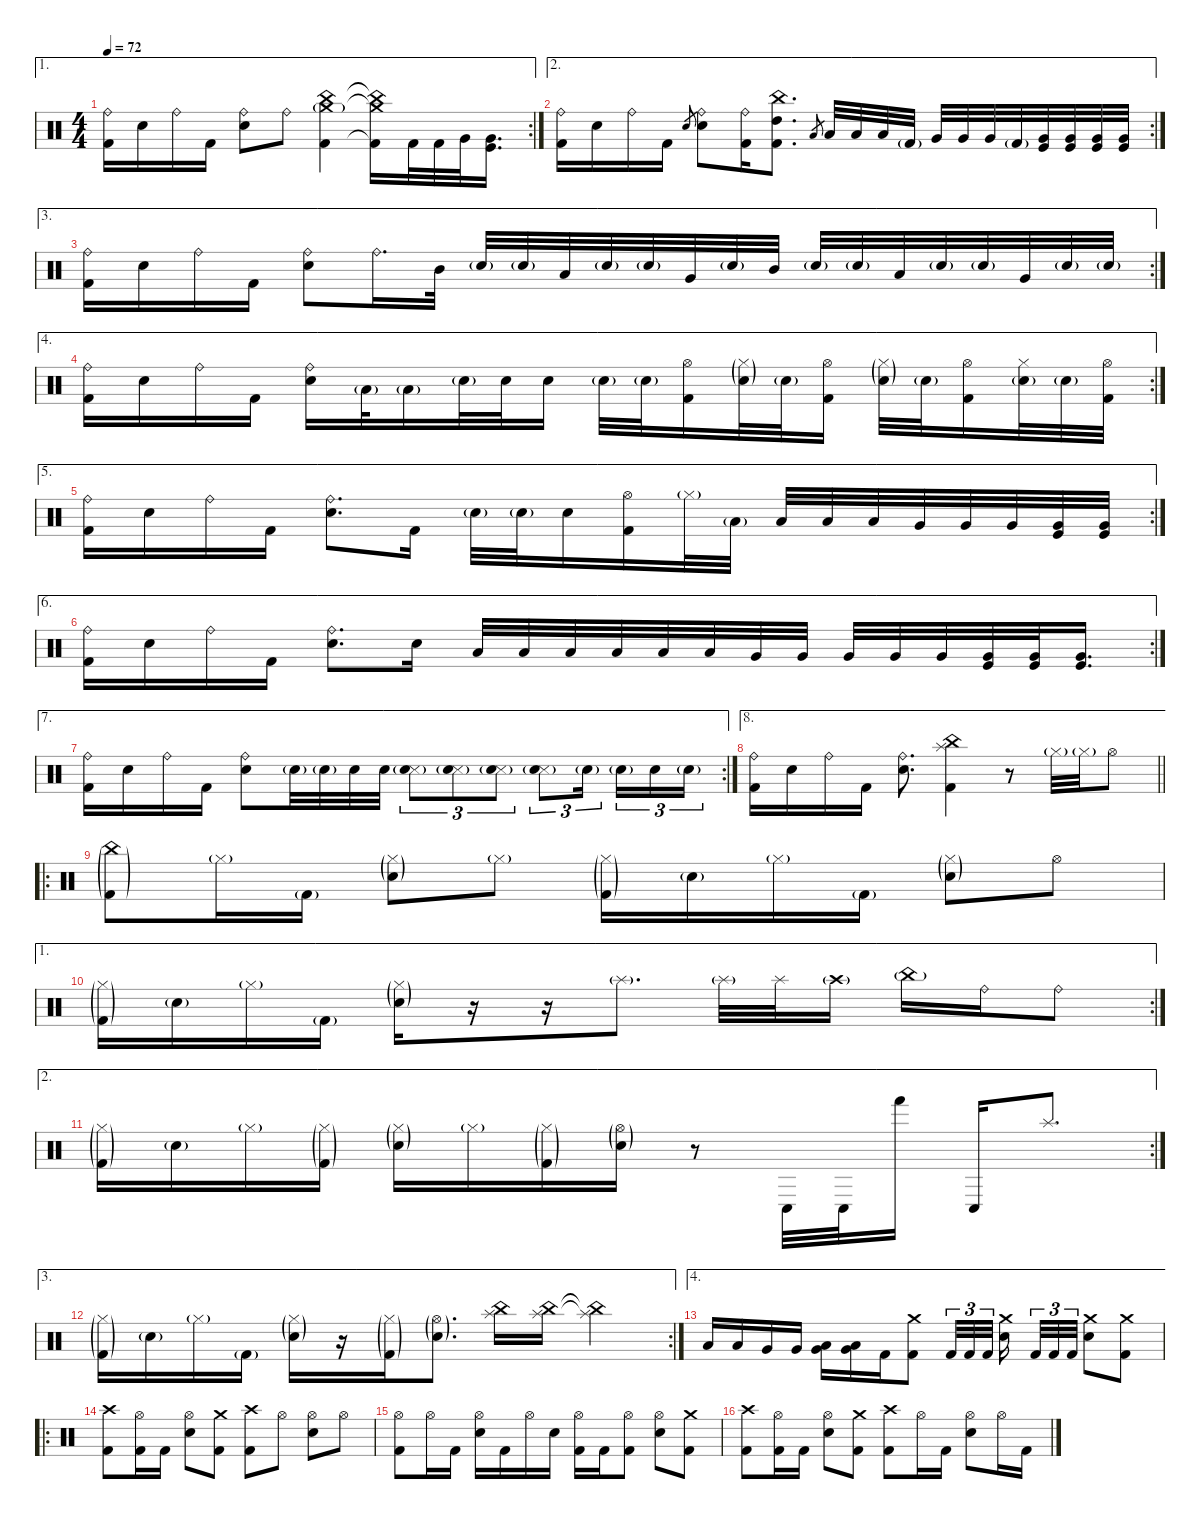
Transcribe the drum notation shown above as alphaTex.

\defaultSystemsLayout 4
\hideDynamics
\bracketExtendMode nobrackets
\singleTrackTrackNamePolicy hidden
\multiTrackTrackNamePolicy hidden
\firstSystemTrackNameMode fullname
\firstSystemTrackNameOrientation horizontal
\otherSystemsTrackNameOrientation horizontal
\track ("Drums" "drm.") {instrument percussion}
\staff {score}
\articulation defaults
\ae 1
\rc 2
\ts (4 4)
\tempo 72
\clef neutral
\ks c
("Ride (bell)" "Kick (hit) 2").16{dy f beam Down} "Snare (hit) 2".16{beam Down} "Ride (bell)".16{beam Down} "Kick (hit) 2".16{beam Down} ("Ride (bell)" "Snare (hit) 2").8{beam Down} "Ride (bell)".8{beam Down} ("China (hit)" "Crash medium (hit)"{g} "Kick (hit) 2").4{beam Down} ("China (hit)"{t} "Crash medium (hit)"{t} "Kick (hit) 2"{t}).16{beam Down} "Kick (hit) 2".32{dy mf beam Down} "Kick (hit) 2".32{beam Down} "Very Low Tom (hit)".32{dy f beam Down} ("Very Low Tom (hit)" "Kick (hit)").16{d beam Down} |
\ae 2
\rc 2
("Ride (bell)" "Kick (hit) 2").16{beam Down} "Snare (hit) 2".16{beam Down} "Ride (bell)".16{beam Down} "Kick (hit) 2".16{beam Down} "Electric Snare (hit)".8{gr dy mf beam Up} ("Ride (bell)" "Snare (hit) 2").8{dy f beam Down} ("Ride (bell)" "Kick (hit) 2").16{beam Down} ("China (hit)" "High Tom (hit)" "Kick (hit) 2").8{d beam Down} "Low Tom (hit)".8{gr dy mf beam Up} "Low Tom (hit)".32{dy f beam Up} "Low Tom (hit)".32{beam Up} "Low Tom (hit)".32{beam Up} "Kick (hit) 2"{g}.32{dy mf beam Up} "Very Low Tom (hit)".32{dy f beam Up} "Very Low Tom (hit)".32{beam Up} "Very Low Tom (hit)".32{beam Up} "Kick (hit) 2"{g}.32{dy mf beam Up} ("Very Low Tom (hit)" "Kick (hit)").32{dy f beam Up} ("Very Low Tom (hit)" "Kick (hit)").32{beam Up} ("Very Low Tom (hit)" "Kick (hit)").32{beam Up} ("Very Low Tom (hit)" "Kick (hit)").32{beam Up} |
\ae 3
\rc 2
("Ride (bell)" "Kick (hit) 2").16{beam Down} "Snare (hit) 2".16{beam Down} "Ride (bell)".16{beam Down} "Kick (hit) 2".16{beam Down} ("Ride (bell)" "Snare (hit) 2").8{beam Down} "Ride (bell)".16{d beam Down} "Mid Tom (hit)".32{beam Down} "Snare (hit) 2"{g}.32{dy mf beam Up} "Snare (hit) 2"{g}.32{beam Up} "Low Tom (hit)".32{dy f beam Up} "Snare (hit) 2"{g}.32{dy mf beam Up} "Snare (hit) 2"{g}.32{beam Up} "Very Low Tom (hit)".32{dy f beam Up} "Snare (hit) 2"{g}.32{dy mf beam Up} "Mid Tom (hit)".32{dy f beam Up} "Snare (hit) 2"{g}.32{dy mf beam Up} "Snare (hit) 2"{g}.32{beam Up} "Low Tom (hit)".32{dy f beam Up} "Snare (hit) 2"{g}.32{dy mf beam Up} "Snare (hit) 2"{g}.32{beam Up} "Very Low Tom (hit)".32{dy f beam Up} "Snare (hit) 2"{g}.32{dy mf beam Up} "Snare (hit) 2"{g}.32{beam Up} |
\ae 4
\rc 2
("Ride (bell)" "Kick (hit) 2").16{dy f beam Down} "Snare (hit) 2".16{beam Down} "Ride (bell)".16{beam Down} "Kick (hit) 2".16{beam Down} ("Ride (bell)" "Snare (hit) 2").16{beam Down} "Low Tom (hit)"{g}.32{dy mf beam Down} "Low Tom (hit)"{g}.16{beam Down} "Snare (hit) 2"{g}.32{beam Down} "Snare (hit) 2".32{dy f beam Down} "Snare (hit) 2".16{beam Down} "Snare (hit) 2"{g}.32{dy mf beam Down} "Snare (hit) 2"{g}.32{beam Down} ("Hi-Hat (open)" "Kick (hit) 2").16{dy f beam Down} ("Hi-Hat (closed)"{g} "Snare (hit) 2"{g}).32{dy mf beam Down} "Snare (hit) 2"{g}.32{beam Down} ("Hi-Hat (open)" "Kick (hit) 2").16{dy f beam Down} ("Hi-Hat (closed)"{g} "Snare (hit) 2"{g}).32{dy mf beam Down} "Snare (hit) 2"{g}.32{beam Down} ("Hi-Hat (open)" "Kick (hit) 2").16{dy f beam Down} ("Hi-Hat (closed)" "Snare (hit) 2"{g}).32{beam Down} "Snare (hit) 2"{g}.32{dy mf beam Down} ("Hi-Hat (open)" "Kick (hit) 2").32{dy f beam Down} |
\ae 5
\rc 2
("Ride (bell)" "Kick (hit) 2").16{beam Down} "Snare (hit) 2".16{beam Down} "Ride (bell)".16{beam Down} "Kick (hit) 2".16{beam Down} ("Ride (bell)" "Snare (hit) 2").8{d beam Down} "Kick (hit) 2".16{beam Down} "Snare (hit) 2"{g}.32{dy mf beam Down} "Snare (hit) 2"{g}.32{beam Down} "Snare (hit) 2".16{dy f beam Down} ("Hi-Hat (open)" "Kick (hit) 2").16{beam Down} "Hi-Hat (closed)"{g}.32{dy mf beam Down} "Low Tom (hit)"{g}.32{beam Down} "Low Tom (hit)".32{dy f beam Up} "Low Tom (hit)".32{beam Up} "Low Tom (hit)".32{beam Up} "Very Low Tom (hit)".32{beam Up} "Very Low Tom (hit)".32{beam Up} "Very Low Tom (hit)".32{beam Up} ("Very Low Tom (hit)" "Kick (hit)").32{beam Up} ("Very Low Tom (hit)" "Kick (hit)").32{beam Up} |
\ae 6
\rc 2
("Ride (bell)" "Kick (hit) 2").16{beam Down} "Snare (hit) 2".16{beam Down} "Ride (bell)".16{beam Down} "Kick (hit) 2".16{beam Down} ("Ride (bell)" "Snare (hit) 2").8{d beam Down} "Snare (hit) 2".16{beam Down} "Low Tom (hit)".32{beam Up} "Low Tom (hit)".32{beam Up} "Low Tom (hit)".32{beam Up} "Low Tom (hit)".32{beam Up} "Low Tom (hit)".32{beam Up} "Low Tom (hit)".32{beam Up} "Very Low Tom (hit)".32{beam Up} "Very Low Tom (hit)".32{beam Up} "Very Low Tom (hit)".32{beam Up} "Very Low Tom (hit)".32{beam Up} "Very Low Tom (hit)".32{beam Up} ("Very Low Tom (hit)" "Kick (hit)").32{beam Up} ("Very Low Tom (hit)" "Kick (hit)").32{beam Up} ("Very Low Tom (hit)" "Kick (hit)").16{d beam Up} |
\ae 7
\rc 2
("Ride (bell)" "Kick (hit) 2").16{beam Down} "Snare (hit) 2".16{beam Down} "Ride (bell)".16{beam Down} "Kick (hit) 2".16{beam Down} ("Ride (bell)" "Snare (hit) 2").8{beam Down} "Snare (hit) 2"{g}.32{dy mf beam Down} "Snare (hit) 2"{g}.32{beam Down} "Snare (hit) 2".32{dy f beam Down} "Snare (hit) 2".32{beam Down} ("Snare (side stick) 3" "Snare (hit) 2"{g}).8{tu (3 2) dy fff beam Down} ("Snare (side stick) 3" "Snare (hit) 2"{g}).8{tu (3 2) beam Down} ("Snare (side stick) 3" "Snare (hit) 2"{g}).8{tu (3 2) beam Down} ("Snare (side stick) 3" "Snare (hit) 2"{g}).8{tu (3 2) beam Down} "Snare (hit) 2"{g}.16{tu (3 2) dy ff beam Down} "Snare (hit) 2"{g}.16{tu (3 2) beam Down} "Snare (hit) 2".16{tu (3 2) dy fff beam Down} "Snare (hit) 2"{g}.16{tu (3 2) dy ff beam Down} |
\ae 8
\barLineRight lightlight
("Ride (bell)" "Kick (hit) 2").16{dy f beam Down} "Snare (hit) 2".16{beam Down} "Ride (bell)".16{beam Down} "Kick (hit) 2".16{beam Down} ("Ride (bell)" "Snare (hit) 2").8{d dy fff beam Down} ("China (hit)" "Splash (hit)" "Kick (hit) 2").4{beam Down} r.8{beam Down} "Hi-Hat (closed)"{g}.32{dy ff beam Down} "Hi-Hat (closed)"{g}.32{beam Down} "Hi-Hat (open)".8{dy fff beam Down} |
\ro
("China (hit)"{g} "Kick (hit) 2"{g}).8{dy ff beam Down} "Hi-Hat (closed)"{g}.16{beam Down} "Kick (hit) 2"{g}.16{beam Down} ("Hi-Hat (closed)"{g} "Snare (hit) 2"{g}).8{beam Down} "Hi-Hat (closed)"{g}.8{beam Down} ("Hi-Hat (closed)"{g} "Kick (hit) 2"{g}).16{beam Down} "Snare (hit) 2"{g}.16{beam Down} "Hi-Hat (closed)"{g}.16{beam Down} "Kick (hit) 2"{g}.16{beam Down} ("Hi-Hat (closed)"{g} "Snare (hit) 2"{g}).8{beam Down} "Hi-Hat (open)".8{dy fff beam Down} |
\ae 1
\rc 2
("Hi-Hat (closed)"{g} "Kick (hit) 2"{g}).16{dy ff beam Down} "Snare (hit) 2"{g}.16{beam Down} "Hi-Hat (closed)"{g}.16{beam Down} "Kick (hit) 2"{g}.16{beam Down} ("Hi-Hat (closed)"{g} "Snare (hit) 2"{g}).16{beam Down} r.16{beam Down} r.16{beam Down} "Splash (hit)"{g}.8{d beam Down} "Splash (hit)"{g}.32{beam Down} "Splash (hit)".32{dy fff beam Down} "Crash high (hit)"{g}.16{dy ff beam Down} "China (hit)"{g}.16{beam Down} "Ride (bell)".16{dy fff beam Down} "Ride (bell)".8{beam Down} |
\ae 2
\rc 2
("Hi-Hat (closed)"{g} "Kick (hit) 2"{g}).16{dy ff beam Down} "Snare (hit) 2"{g}.16{beam Down} "Hi-Hat (closed)"{g}.16{beam Down} ("Hi-Hat (closed)"{g} "Kick (hit) 2"{g}).16{beam Down} ("Hi-Hat (closed)"{g} "Snare (hit) 2"{g}).16{beam Down} "Hi-Hat (closed)"{g}.16{beam Down} ("Hi-Hat (closed)"{g} "Kick (hit) 2"{g}).16{beam Down} ("Hi-Hat (open)"{g} "Snare (hit) 2"{g}).16{beam Down} r.8{beam Down} "Conga low (hit)".32{dy f beam Up} "Conga low (hit)".32{dy fff beam Up} "Hand (hit)".16{dy f beam Up} "Conga low (hit)".16{beam Up} "Splash (hit)".8{d dy fff beam Up} |
\ae 3
\rc 2
("Hi-Hat (closed)"{g} "Kick (hit) 2"{g}).16{dy ff beam Down} "Snare (hit) 2"{g}.16{beam Down} "Hi-Hat (closed)"{g}.16{beam Down} "Kick (hit) 2"{g}.16{beam Down} ("Hi-Hat (closed)"{g} "Snare (hit) 2"{g}).16{beam Down} r.16{beam Down} ("Hi-Hat (closed)"{g} "Kick (hit) 2"{g}).16{beam Down} ("Hi-Hat (open)"{g} "Snare (hit) 2"{g}).8{d beam Down} ("Splash (hit)" "China (hit)").16{dy f beam Down} ("Splash (hit)" "China (hit)").16{beam Down} ("Splash (hit)"{t} "China (hit)"{t}).4{beam Down} |
\ae 4 "Low Tom (hit)".16{beam Up} "Low Tom (hit)".16{beam Up} "Very Low Tom (hit)".16{beam Up} "Very Low Tom (hit)".16{beam Up}
("Low Tom (hit)" "Very Low Tom (hit)").16{beam Down} ("Low Tom (hit)" "Very Low Tom (hit)").16{beam Down} "Kick (hit) 2".16{beam Down} ("Crash medium (hit)" "Kick (hit) 2").8{beam Down} "Kick (hit) 2".32{tu (3 2) beam Up} "Kick (hit) 2".32{tu (3 2) beam Up} "Kick (hit) 2".32{tu (3 2) beam Up} ("Crash medium (hit)" "Snare (hit) 2").16{beam Down} "Kick (hit) 2".32{tu (3 2) beam Up} "Kick (hit) 2".32{tu (3 2) beam Up} "Kick (hit) 2".32{tu (3 2) beam Up} ("Crash medium (hit)" "Snare (hit) 2").8{beam Down} ("Crash medium (hit)" "Kick (hit) 2").8{beam Down} |
\ro
("Crash high (hit)" "Kick (hit) 2").8{beam Down} ("Hi-Hat (open)" "Kick (hit) 2").16{beam Down} "Kick (hit) 2".16{beam Down} ("Hi-Hat (open)" "Snare (hit) 2").8{beam Down} ("Crash medium (hit)" "Kick (hit) 2").8{beam Down} ("Crash high (hit)" "Kick (hit) 2").8{beam Down} "Hi-Hat (open)".8{beam Down} ("Hi-Hat (open)" "Snare (hit) 2").8{beam Down} "Hi-Hat (open)".8{beam Down} |
("Hi-Hat (open)" "Kick (hit) 2").8{beam Down} "Hi-Hat (open)".16{beam Down} "Kick (hit) 2".16{beam Down} ("Hi-Hat (open)" "Snare (hit) 2").16{beam Down} "Kick (hit) 2".16{beam Down} "Hi-Hat (open)".16{beam Down} "Snare (hit) 2".16{beam Down} ("Hi-Hat (open)" "Kick (hit) 2").16{beam Down} "Kick (hit) 2".16{beam Down} ("Hi-Hat (open)" "Kick (hit) 2").8{beam Down} ("Hi-Hat (open)" "Snare (hit) 2").8{beam Down} ("Crash medium (hit)" "Kick (hit) 2").8{beam Down} |
("Crash high (hit)" "Kick (hit) 2").8{beam Down} ("Hi-Hat (open)" "Kick (hit) 2").16{beam Down} "Kick (hit) 2".16{beam Down} ("Hi-Hat (open)" "Snare (hit) 2").8{beam Down} ("Crash medium (hit)" "Kick (hit) 2").8{beam Down} ("Crash high (hit)" "Kick (hit) 2").8{beam Down} "Hi-Hat (open)".16{beam Down} "Kick (hit) 2".16{beam Down} ("Hi-Hat (open)" "Snare (hit) 2").8{beam Down} "Hi-Hat (open)".16{beam Down} "Kick (hit) 2".16{beam Down}
